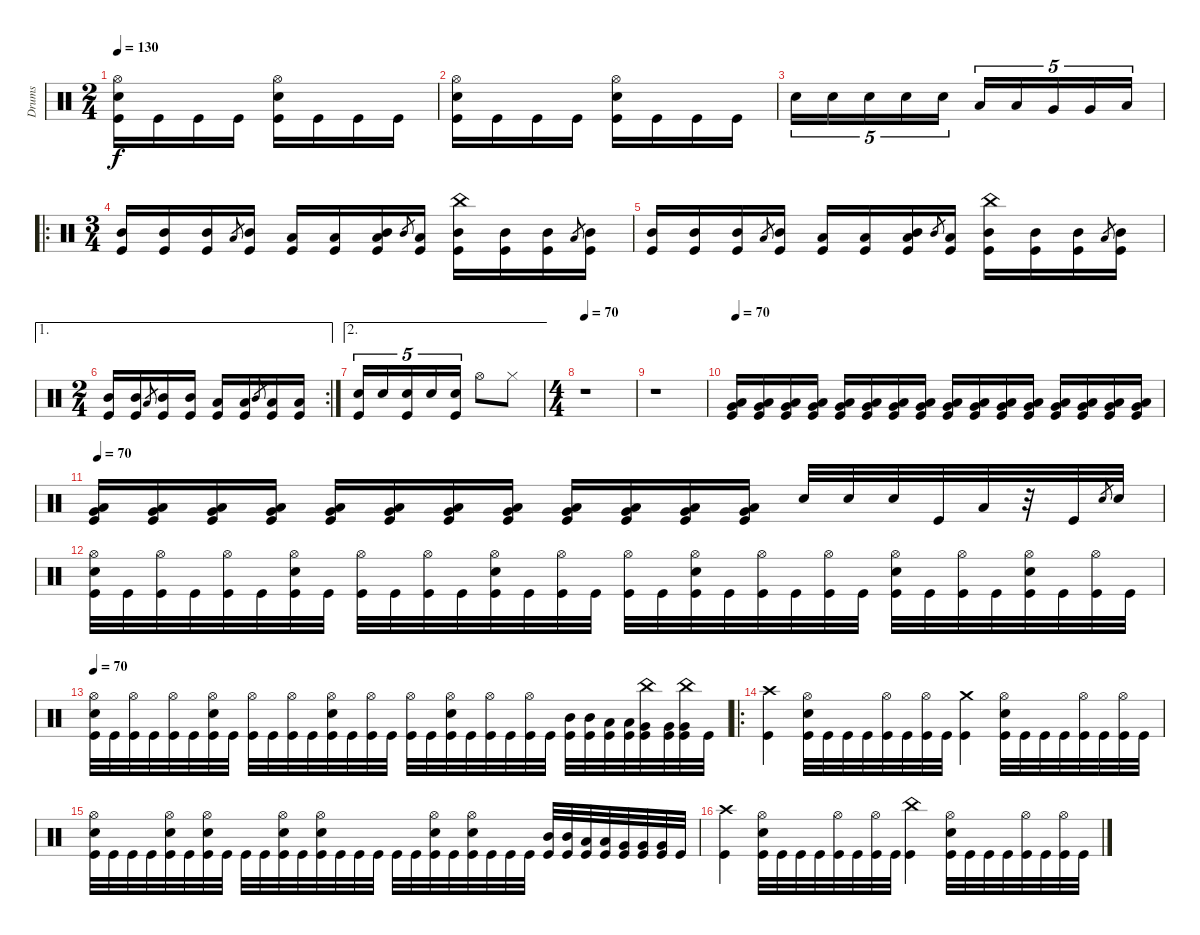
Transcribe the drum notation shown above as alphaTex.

\track ("Drums" "Drums") {instrument percussion}
\staff {score}
\articulation defaults
\ts (2 4)
\tempo 130
\clef neutral
\ks c
("Hi-Hat (open)" "Electric Snare (hit)" "Kick (hit)").16{dy f} "Kick (hit)".16 "Kick (hit)".16 "Kick (hit)".16 ("Hi-Hat (open)" "Electric Snare (hit)" "Kick (hit)").16 "Kick (hit)".16 "Kick (hit)".16 "Kick (hit)".16 |
("Hi-Hat (open)" "Electric Snare (hit)" "Kick (hit)").16 "Kick (hit)".16 "Kick (hit)".16 "Kick (hit)".16 ("Hi-Hat (open)" "Electric Snare (hit)" "Kick (hit)").16 "Kick (hit)".16 "Kick (hit)".16 "Kick (hit)".16 |
"Electric Snare (hit)".16{tu (5 4)} "Electric Snare (hit)".16{tu (5 4)} "Electric Snare (hit)".16{tu (5 4)} "Electric Snare (hit)".16{tu (5 4)} "Electric Snare (hit)".16{tu (5 4)} "Low Tom (hit)".16{tu (5 4)} "Low Tom (hit)".16{tu (5 4)} "Very Low Tom (hit)".16{tu (5 4)} "Very Low Tom (hit)".16{tu (5 4)} "Low Floor Tom (hit)".16{tu (5 4)} |
\ro
\ts (3 4)
("Mid Tom (hit)" "Kick (hit)").16 ("Mid Tom (hit)" "Kick (hit)").16 ("Mid Tom (hit)" "Kick (hit)").16 "Low Tom (hit)".8{gr} ("Mid Tom (hit)" "Kick (hit)").16 ("Low Tom (hit)" "Kick (hit)").16 ("Low Tom (hit)" "Kick (hit)").16 ("Mid Tom (hit)" "Low Tom (hit)" "Kick (hit)").16 "Mid Tom (hit)".8{gr} ("Low Tom (hit)" "Kick (hit)").16 ("China (hit)" "Mid Tom (hit)" "Kick (hit)").16 ("Mid Tom (hit)" "Kick (hit)").16 ("Mid Tom (hit)" "Kick (hit)").16 "Low Tom (hit)".8{gr} ("Mid Tom (hit)" "Kick (hit)").16 |
("Mid Tom (hit)" "Kick (hit)").16 ("Mid Tom (hit)" "Kick (hit)").16 ("Mid Tom (hit)" "Kick (hit)").16 "Low Tom (hit)".8{gr} ("Mid Tom (hit)" "Kick (hit)").16 ("Low Tom (hit)" "Kick (hit)").16 ("Low Tom (hit)" "Kick (hit)").16 ("Mid Tom (hit)" "Low Tom (hit)" "Kick (hit)").16 "Mid Tom (hit)".8{gr} ("Low Tom (hit)" "Kick (hit)").16 ("China (hit)" "Mid Tom (hit)" "Kick (hit)").16 ("Mid Tom (hit)" "Kick (hit)").16 ("Mid Tom (hit)" "Kick (hit)").16 "Low Tom (hit)".8{gr} ("Mid Tom (hit)" "Kick (hit)").16 |
\ae 1
\rc 2
\ts (2 4)
("Mid Tom (hit)" "Kick (hit)").16 ("Mid Tom (hit)" "Kick (hit)").16 "Low Tom (hit)".8{gr} ("Mid Tom (hit)" "Kick (hit)").16 ("Mid Tom (hit)" "Kick (hit)").16 ("Low Tom (hit)" "Kick (hit)").16 ("Low Tom (hit)" "Kick (hit)").16 "Mid Tom (hit)".8{gr} ("Low Tom (hit)" "Kick (hit)").16 ("Low Tom (hit)" "Kick (hit)").16 |
\ae 2
("Electric Snare (hit)" "Kick (hit)").16{tu (5 4)} "Electric Snare (hit)".16{tu (5 4)} ("Electric Snare (hit)" "Kick (hit)").16{tu (5 4)} "Electric Snare (hit)".16{tu (5 4)} ("Electric Snare (hit)" "Kick (hit)").16{tu (5 4)} "Hi-Hat (open)".8 "Hi-Hat (closed)".8 |
\ts (4 4)
\tempo 70
r.1{volume 0} |
r.1{volume 16} |
\tempo 70
("Very Low Tom (hit)" "Low Floor Tom (hit)" "Kick (hit)").16 ("Very Low Tom (hit)" "Low Floor Tom (hit)" "Kick (hit)").16 ("Very Low Tom (hit)" "Low Floor Tom (hit)" "Kick (hit)").16 ("Very Low Tom (hit)" "Low Floor Tom (hit)" "Kick (hit)").16 ("Very Low Tom (hit)" "Low Floor Tom (hit)" "Kick (hit)").16 ("Very Low Tom (hit)" "Low Floor Tom (hit)" "Kick (hit)").16 ("Very Low Tom (hit)" "Low Floor Tom (hit)" "Kick (hit)").16 ("Very Low Tom (hit)" "Low Floor Tom (hit)" "Kick (hit)").16 ("Very Low Tom (hit)" "Low Floor Tom (hit)" "Kick (hit)").16 ("Very Low Tom (hit)" "Low Floor Tom (hit)" "Kick (hit)").16 ("Very Low Tom (hit)" "Low Floor Tom (hit)" "Kick (hit)").16 ("Very Low Tom (hit)" "Low Floor Tom (hit)" "Kick (hit)").16 ("Very Low Tom (hit)" "Low Floor Tom (hit)" "Kick (hit)").16 ("Very Low Tom (hit)" "Low Floor Tom (hit)" "Kick (hit)").16 ("Very Low Tom (hit)" "Low Floor Tom (hit)" "Kick (hit)").16 ("Very Low Tom (hit)" "Low Floor Tom (hit)" "Kick (hit)").16 |
\tempo 70
("Very Low Tom (hit)" "Low Floor Tom (hit)" "Kick (hit)").16 ("Very Low Tom (hit)" "Low Floor Tom (hit)" "Kick (hit)").16 ("Very Low Tom (hit)" "Low Floor Tom (hit)" "Kick (hit)").16 ("Very Low Tom (hit)" "Low Floor Tom (hit)" "Kick (hit)").16 ("Very Low Tom (hit)" "Low Floor Tom (hit)" "Kick (hit)").16 ("Very Low Tom (hit)" "Low Floor Tom (hit)" "Kick (hit)").16 ("Very Low Tom (hit)" "Low Floor Tom (hit)" "Kick (hit)").16 ("Very Low Tom (hit)" "Low Floor Tom (hit)" "Kick (hit)").16 ("Very Low Tom (hit)" "Low Floor Tom (hit)" "Kick (hit)").16 ("Very Low Tom (hit)" "Low Floor Tom (hit)" "Kick (hit)").16 ("Very Low Tom (hit)" "Low Floor Tom (hit)" "Kick (hit)").16 ("Very Low Tom (hit)" "Low Floor Tom (hit)" "Kick (hit)").16 "Electric Snare (hit)".32 "Electric Snare (hit)".32 "Electric Snare (hit)".32 "Kick (hit)".32 "Low Tom (hit)".32 r.32 "Kick (hit)".32 "Electric Snare (hit)".8{gr} "Electric Snare (hit)".32 |
("Hi-Hat (open)" "Electric Snare (hit)" "Kick (hit)").32 "Kick (hit)".32 ("Hi-Hat (open)" "Kick (hit)").32 "Kick (hit)".32 ("Hi-Hat (open)" "Kick (hit)").32 "Kick (hit)".32 ("Hi-Hat (open)" "Electric Snare (hit)" "Kick (hit)").32 "Kick (hit)".32 ("Hi-Hat (open)" "Kick (hit)").32 "Kick (hit)".32 ("Hi-Hat (open)" "Kick (hit)").32 "Kick (hit)".32 ("Hi-Hat (open)" "Electric Snare (hit)" "Kick (hit)").32 "Kick (hit)".32 ("Hi-Hat (open)" "Kick (hit)").32 "Kick (hit)".32 ("Hi-Hat (open)" "Kick (hit)").32 "Kick (hit)".32 ("Hi-Hat (open)" "Electric Snare (hit)" "Kick (hit)").32 "Kick (hit)".32 ("Hi-Hat (open)" "Kick (hit)").32 "Kick (hit)".32 ("Hi-Hat (open)" "Kick (hit)").32 "Kick (hit)".32 ("Hi-Hat (open)" "Electric Snare (hit)" "Kick (hit)").32 "Kick (hit)".32 ("Hi-Hat (open)" "Kick (hit)").32 "Kick (hit)".32 ("Hi-Hat (open)" "Electric Snare (hit)" "Kick (hit)").32 "Kick (hit)".32 ("Hi-Hat (open)" "Kick (hit)").32 "Kick (hit)".32 |
\tempo 70
("Hi-Hat (open)" "Electric Snare (hit)" "Kick (hit)").32 "Kick (hit)".32 ("Hi-Hat (open)" "Kick (hit)").32 "Kick (hit)".32 ("Hi-Hat (open)" "Kick (hit)").32 "Kick (hit)".32 ("Hi-Hat (open)" "Electric Snare (hit)" "Kick (hit)").32 "Kick (hit)".32 ("Hi-Hat (open)" "Kick (hit)").32 "Kick (hit)".32 ("Hi-Hat (open)" "Kick (hit)").32 "Kick (hit)".32 ("Hi-Hat (open)" "Electric Snare (hit)" "Kick (hit)").32 "Kick (hit)".32 ("Hi-Hat (open)" "Kick (hit)").32 "Kick (hit)".32 ("Hi-Hat (open)" "Kick (hit)").32 "Kick (hit)".32 ("Hi-Hat (open)" "Electric Snare (hit)" "Kick (hit)").32 "Kick (hit)".32 ("Hi-Hat (open)" "Kick (hit)").32 "Kick (hit)".32 ("Hi-Hat (open)" "Kick (hit)").32 "Kick (hit)".32 ("Mid Tom (hit)" "Kick (hit)").32 ("Mid Tom (hit)" "Kick (hit)").32 ("Low Tom (hit)" "Kick (hit)").32 ("Low Tom (hit)" "Kick (hit)").32 ("China (hit)" "Very Low Tom (hit)" "Kick (hit)").32 ("Very Low Tom (hit)" "Kick (hit)").32 ("China (hit)" "Very Low Tom (hit)" "Kick (hit)").32 "Kick (hit)".32 |
\ro
("Crash high (hit)" "Kick (hit)").4 ("Hi-Hat (open)" "Electric Snare (hit)" "Kick (hit)").32 "Kick (hit)".32 "Kick (hit)".32 "Kick (hit)".32 ("Hi-Hat (open)" "Kick (hit)").32 "Kick (hit)".32 ("Hi-Hat (open)" "Kick (hit)").32 "Kick (hit)".32 ("Crash medium (hit)" "Kick (hit)").4 ("Hi-Hat (open)" "Electric Snare (hit)" "Kick (hit)").32 "Kick (hit)".32 "Kick (hit)".32 "Kick (hit)".32 ("Hi-Hat (open)" "Kick (hit)").32 "Kick (hit)".32 ("Hi-Hat (open)" "Kick (hit)").32 "Kick (hit)".32 |
("Hi-Hat (open)" "Electric Snare (hit)" "Kick (hit)").32 "Kick (hit)".32 "Kick (hit)".32 "Kick (hit)".32 ("Hi-Hat (open)" "Electric Snare (hit)" "Kick (hit)").32 "Kick (hit)".32 ("Hi-Hat (open)" "Electric Snare (hit)" "Kick (hit)").32 "Kick (hit)".32 "Kick (hit)".32 "Kick (hit)".32 ("Hi-Hat (open)" "Electric Snare (hit)" "Kick (hit)").32 "Kick (hit)".32 ("Hi-Hat (open)" "Electric Snare (hit)" "Kick (hit)").32 "Kick (hit)".32 "Kick (hit)".32 "Kick (hit)".32 "Kick (hit)".32 "Kick (hit)".32 ("Hi-Hat (open)" "Electric Snare (hit)" "Kick (hit)").32 "Kick (hit)".32 ("Hi-Hat (open)" "Electric Snare (hit)" "Kick (hit)").32 "Kick (hit)".32 "Kick (hit)".32 "Kick (hit)".32 ("Mid Tom (hit)" "Kick (hit)").32 ("Mid Tom (hit)" "Kick (hit)").32 ("Low Tom (hit)" "Kick (hit)").32 ("Low Tom (hit)" "Kick (hit)").32 ("Very Low Tom (hit)" "Kick (hit)").32 ("Very Low Tom (hit)" "Kick (hit)").32 ("Very Low Tom (hit)" "Kick (hit)").32 "Kick (hit)".32 |
("Crash high (hit)" "Kick (hit)").4 ("Hi-Hat (open)" "Electric Snare (hit)" "Kick (hit)").32 "Kick (hit)".32 "Kick (hit)".32 "Kick (hit)".32 ("Hi-Hat (open)" "Kick (hit)").32 "Kick (hit)".32 ("Hi-Hat (open)" "Kick (hit)").32 "Kick (hit)".32 ("China (hit)" "Kick (hit)").4 ("Hi-Hat (open)" "Electric Snare (hit)" "Kick (hit)").32 "Kick (hit)".32 "Kick (hit)".32 "Kick (hit)".32 ("Hi-Hat (open)" "Kick (hit)").32 "Kick (hit)".32 ("Hi-Hat (open)" "Kick (hit)").32 "Kick (hit)".32
